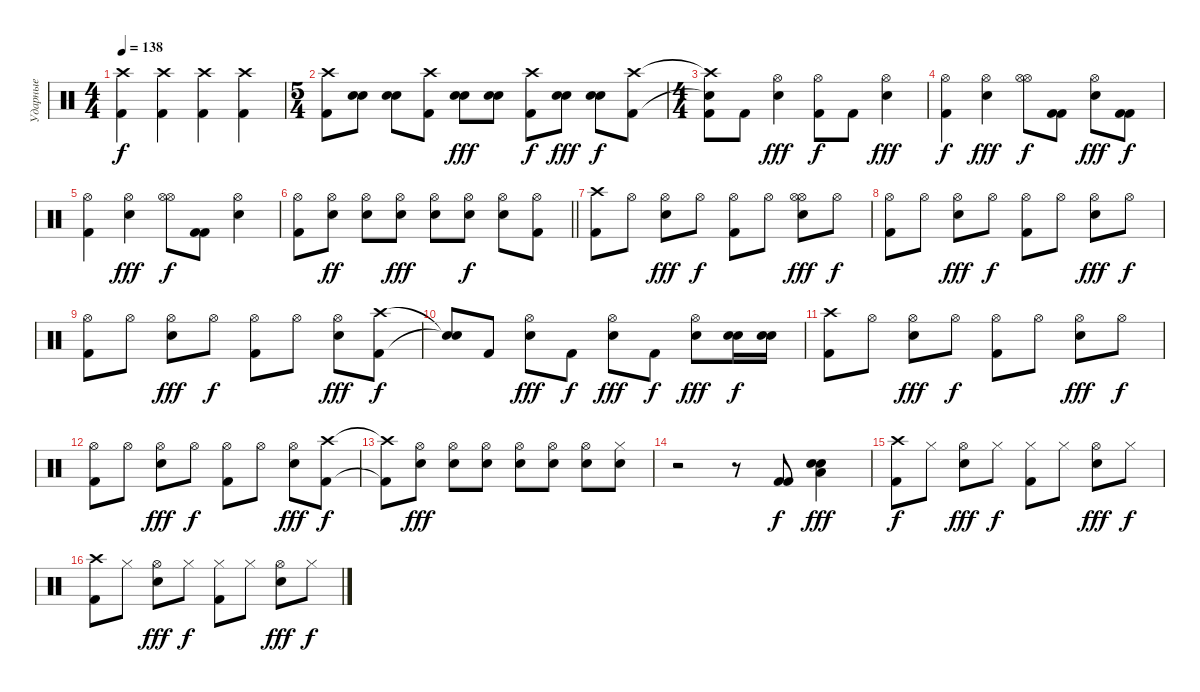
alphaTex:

\track ("Ударные" "Ударные") {instrument percussion}
\staff {score}
\articulation defaults
\ts (4 4)
\tempo 138
\clef neutral
\ks c
("Crash high (hit)" "Kick (hit) 2").4{dy f} ("Crash high (hit)" "Kick (hit) 2").4 ("Crash high (hit)" "Kick (hit) 2").4 ("Crash high (hit)" "Kick (hit) 2").4 |
\ts (5 4)
("Crash high (hit)" "Kick (hit) 2").8 ("Electric Snare (hit)" "Electric Snare (hit)").8 ("Electric Snare (hit)" "Electric Snare (hit)").8 ("Crash high (hit)" "Kick (hit) 2").8 ("Electric Snare (hit)" "Electric Snare (hit)").8{dy fff} ("Electric Snare (hit)" "Electric Snare (hit)").8 ("Crash high (hit)" "Kick (hit) 2").8{dy f} ("Electric Snare (hit)" "Electric Snare (hit)").8{dy fff} ("Electric Snare (hit)" "Electric Snare (hit)").8{dy f} ("Crash high (hit)" "Kick (hit) 2").8 |
\ts (4 4)
("Crash high (hit)"{t} "Snare (hit)"{t} "Kick (hit) 2").8 "Kick (hit) 2".8 ("Hi-Hat (open)" "Electric Snare (hit)").4{dy fff} ("Hi-Hat (open)" "Kick (hit) 2").8{dy f} "Kick (hit) 2".8 ("Hi-Hat (open)" "Electric Snare (hit)").4{dy fff} |
("Hi-Hat (open)" "Kick (hit) 2").4{dy f} ("Hi-Hat (open)" "Electric Snare (hit)").4{dy fff} ("Hi-Hat (open)" "Hi-Hat (open)").8{dy f} ("Kick (hit) 2" "Kick (hit) 2").8 ("Hi-Hat (open)" "Electric Snare (hit)").8{dy fff} ("Kick (hit) 2" "Kick (hit) 2").8{dy f} |
("Hi-Hat (open)" "Kick (hit) 2").4 ("Hi-Hat (open)" "Electric Snare (hit)").4{dy fff} ("Hi-Hat (open)" "Hi-Hat (open)").8{dy f} ("Kick (hit) 2" "Kick (hit) 2").8 ("Hi-Hat (open)" "Electric Snare (hit)").4 |
\barLineRight lightlight
("Hi-Hat (open)" "Kick (hit) 2").8 ("Hi-Hat (open)" "Electric Snare (hit)").8{dy ff} ("Hi-Hat (open)" "Electric Snare (hit)").8 ("Hi-Hat (open)" "Electric Snare (hit)").8{dy fff} ("Hi-Hat (open)" "Electric Snare (hit)").8 ("Hi-Hat (open)" "Electric Snare (hit)").8{dy f} ("Hi-Hat (open)" "Electric Snare (hit)").8 ("Hi-Hat (open)" "Kick (hit) 2").8 |
("Crash high (hit)" "Kick (hit) 2").8 "Hi-Hat (open)".8 ("Hi-Hat (open)" "Electric Snare (hit)").8{dy fff} "Hi-Hat (open)".8{dy f} ("Hi-Hat (open)" "Kick (hit) 2").8 "Hi-Hat (open)".8 ("Hi-Hat (open)" "Hi-Hat (open)" "Electric Snare (hit)").8{dy fff} "Hi-Hat (open)".8{dy f} |
("Hi-Hat (open)" "Kick (hit) 2").8 "Hi-Hat (open)".8 ("Hi-Hat (open)" "Electric Snare (hit)").8{dy fff} "Hi-Hat (open)".8{dy f} ("Hi-Hat (open)" "Kick (hit) 2").8 "Hi-Hat (open)".8 ("Hi-Hat (open)" "Electric Snare (hit)").8{dy fff} "Hi-Hat (open)".8{dy f} |
("Hi-Hat (open)" "Kick (hit) 2").8 "Hi-Hat (open)".8 ("Hi-Hat (open)" "Electric Snare (hit)").8{dy fff} "Hi-Hat (open)".8{dy f} ("Hi-Hat (open)" "Kick (hit) 2").8 "Hi-Hat (open)".8 ("Hi-Hat (open)" "Electric Snare (hit)").8{dy fff} ("Crash high (hit)" "Kick (hit) 2").8{dy f} |
("Snare (hit)"{t} "Snare (hit)"{t}).8 "Kick (hit) 2".8 ("Hi-Hat (open)" "Electric Snare (hit)").8{dy fff} "Kick (hit) 2".8{dy f} ("Hi-Hat (open)" "Electric Snare (hit)").8{dy fff} "Kick (hit) 2".8{dy f} ("Hi-Hat (open)" "Electric Snare (hit)").8{dy fff} ("Electric Snare (hit)" "Electric Snare (hit)").16{dy f} ("Electric Snare (hit)" "Electric Snare (hit)").16 |
("Crash high (hit)" "Kick (hit) 2").8 "Hi-Hat (open)".8 ("Hi-Hat (open)" "Electric Snare (hit)").8{dy fff} "Hi-Hat (open)".8{dy f} ("Hi-Hat (open)" "Kick (hit) 2").8 "Hi-Hat (open)".8 ("Hi-Hat (open)" "Electric Snare (hit)").8{dy fff} "Hi-Hat (open)".8{dy f} |
("Hi-Hat (open)" "Kick (hit) 2").8 "Hi-Hat (open)".8 ("Hi-Hat (open)" "Electric Snare (hit)").8{dy fff} "Hi-Hat (open)".8{dy f} ("Hi-Hat (open)" "Kick (hit) 2").8 "Hi-Hat (open)".8 ("Hi-Hat (open)" "Electric Snare (hit)").8{dy fff} ("Crash high (hit)" "Kick (hit) 2").8{dy f} |
("Crash high (hit)"{t} "Kick (hit) 2"{t}).8 ("Hi-Hat (open)" "Electric Snare (hit)").8{dy fff} ("Hi-Hat (open)" "Electric Snare (hit)").8 ("Hi-Hat (open)" "Electric Snare (hit)").8 ("Hi-Hat (open)" "Electric Snare (hit)").8 ("Hi-Hat (open)" "Electric Snare (hit)").8 ("Hi-Hat (open)" "Electric Snare (hit)").8 ("Hi-Hat (closed)" "Electric Snare (hit)").8 |
r.2 r.8 ("Kick (hit) 2" "Kick (hit) 2").8{dy f} ("Electric Snare (hit)" "Electric Snare (hit)" "Low Tom (hit)").4{dy fff} |
("Crash high (hit)" "Kick (hit) 2").8{dy f} "Hi-Hat (closed)".8 ("Hi-Hat (open)" "Electric Snare (hit)").8{dy fff} "Hi-Hat (closed)".8{dy f} ("Hi-Hat (closed)" "Kick (hit) 2").8 "Hi-Hat (closed)".8 ("Hi-Hat (open)" "Electric Snare (hit)").8{dy fff} "Hi-Hat (closed)".8{dy f} |
("Crash high (hit)" "Kick (hit) 2").8 "Hi-Hat (closed)".8 ("Hi-Hat (open)" "Electric Snare (hit)").8{dy fff} "Hi-Hat (closed)".8{dy f} ("Hi-Hat (closed)" "Kick (hit) 2").8 "Hi-Hat (closed)".8 ("Hi-Hat (open)" "Electric Snare (hit)").8{dy fff} "Hi-Hat (closed)".8{dy f}
